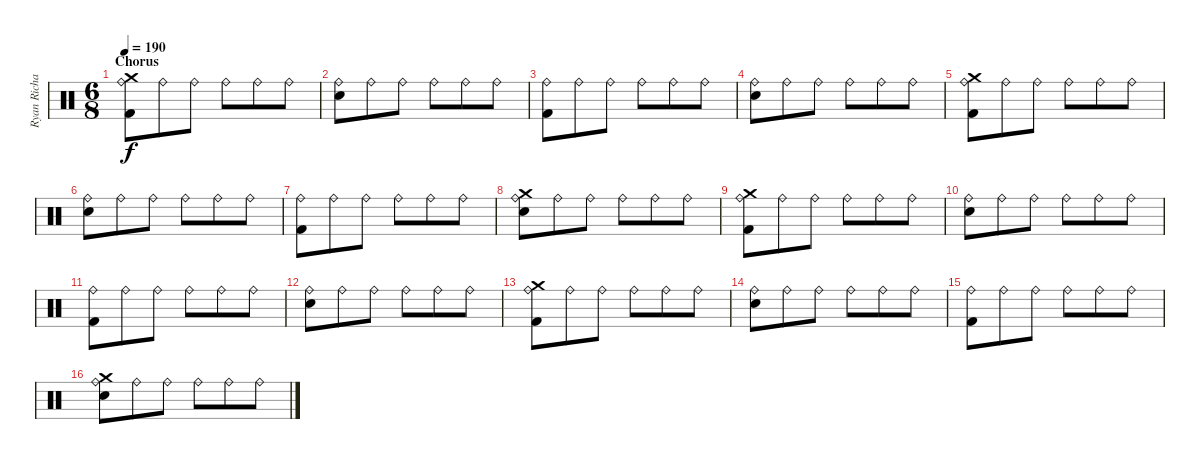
\track ("Ryan Richards" "Ryan Richa") {instrument percussion bank 127}
\staff {score}
\articulation defaults
\ts (6 8)
\section ("" "Chorus")
\tempo 190
\clef neutral
\ks c
("Crash medium (hit)" "Ride (bell)" "Kick (hit) 2").8{dy f} "Ride (bell)".8 "Ride (bell)".8 "Ride (bell)".8 "Ride (bell)".8 "Ride (bell)".8 |
("Ride (bell)" "Snare (hit) 2").8 "Ride (bell)".8 "Ride (bell)".8 "Ride (bell)".8 "Ride (bell)".8 "Ride (bell)".8 |
("Ride (bell)" "Kick (hit) 2").8 "Ride (bell)".8 "Ride (bell)".8 "Ride (bell)".8 "Ride (bell)".8 "Ride (bell)".8 |
("Ride (bell)" "Snare (hit) 2").8 "Ride (bell)".8 "Ride (bell)".8 "Ride (bell)".8 "Ride (bell)".8 "Ride (bell)".8 |
("Crash medium (hit)" "Ride (bell)" "Kick (hit) 2").8 "Ride (bell)".8 "Ride (bell)".8 "Ride (bell)".8 "Ride (bell)".8 "Ride (bell)".8 |
("Ride (bell)" "Snare (hit) 2").8 "Ride (bell)".8 "Ride (bell)".8 "Ride (bell)".8 "Ride (bell)".8 "Ride (bell)".8 |
("Ride (bell)" "Kick (hit) 2").8 "Ride (bell)".8 "Ride (bell)".8 "Ride (bell)".8 "Ride (bell)".8 "Ride (bell)".8 |
("Crash medium (hit)" "Ride (bell)" "Snare (hit) 2").8 "Ride (bell)".8 "Ride (bell)".8 "Ride (bell)".8 "Ride (bell)".8 "Ride (bell)".8 |
("Crash medium (hit)" "Ride (bell)" "Kick (hit) 2").8 "Ride (bell)".8 "Ride (bell)".8 "Ride (bell)".8 "Ride (bell)".8 "Ride (bell)".8 |
("Ride (bell)" "Snare (hit) 2").8 "Ride (bell)".8 "Ride (bell)".8 "Ride (bell)".8 "Ride (bell)".8 "Ride (bell)".8 |
("Ride (bell)" "Kick (hit) 2").8 "Ride (bell)".8 "Ride (bell)".8 "Ride (bell)".8 "Ride (bell)".8 "Ride (bell)".8 |
("Ride (bell)" "Snare (hit) 2").8 "Ride (bell)".8 "Ride (bell)".8 "Ride (bell)".8 "Ride (bell)".8 "Ride (bell)".8 |
("Crash medium (hit)" "Ride (bell)" "Kick (hit) 2").8 "Ride (bell)".8 "Ride (bell)".8 "Ride (bell)".8 "Ride (bell)".8 "Ride (bell)".8 |
("Ride (bell)" "Snare (hit) 2").8 "Ride (bell)".8 "Ride (bell)".8 "Ride (bell)".8 "Ride (bell)".8 "Ride (bell)".8 |
("Ride (bell)" "Kick (hit) 2").8 "Ride (bell)".8 "Ride (bell)".8 "Ride (bell)".8 "Ride (bell)".8 "Ride (bell)".8 |
("Crash medium (hit)" "Ride (bell)" "Snare (hit) 2").8 "Ride (bell)".8 "Ride (bell)".8 "Ride (bell)".8 "Ride (bell)".8 "Ride (bell)".8
